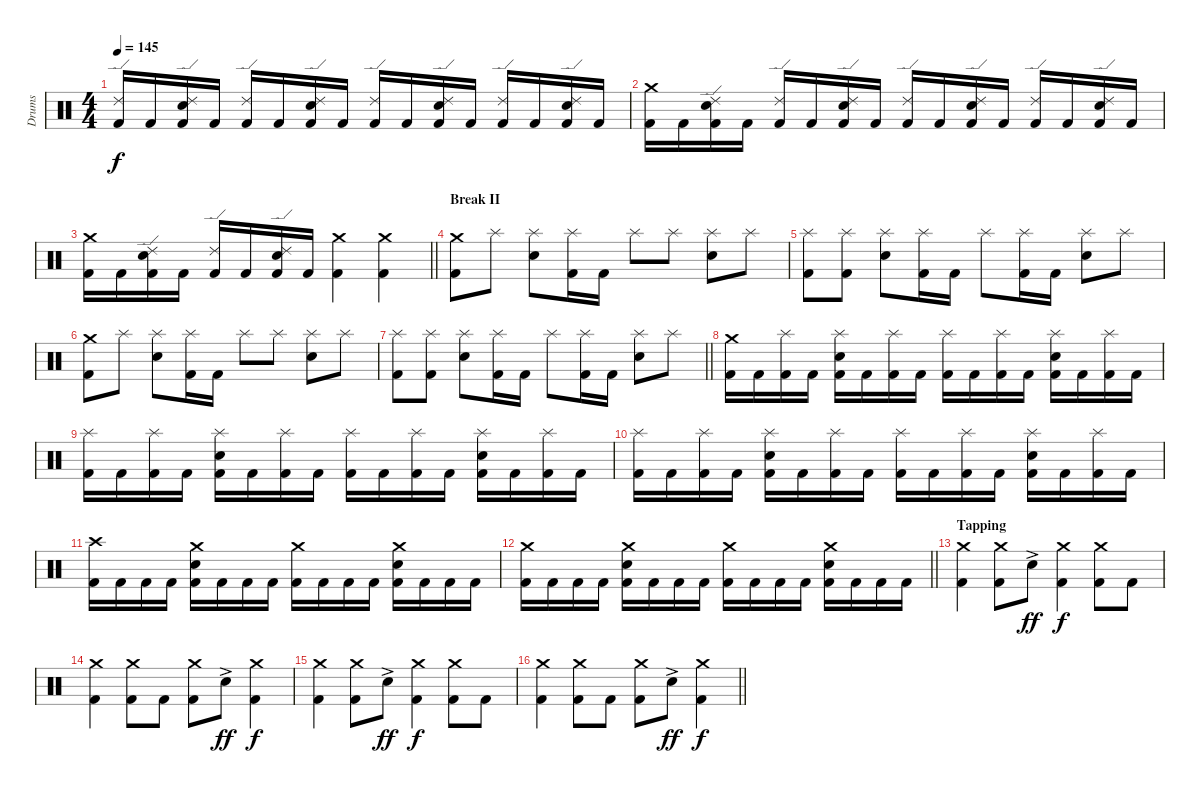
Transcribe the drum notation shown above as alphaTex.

\track ("Drums" "Drums") {instrument percussion}
\staff {score}
\articulation defaults
\ts (4 4)
\tempo 145
\clef neutral
\ks c
("Kick (hit) 2" "Ride (edge) 2").16{dy f} "Kick (hit) 2".16 ("Kick (hit) 2" "Snare (hit) 2" "Ride (edge) 2").16 "Kick (hit) 2".16 ("Kick (hit) 2" "Ride (edge) 2").16 "Kick (hit) 2".16 ("Kick (hit) 2" "Snare (hit) 2" "Ride (edge) 2").16 "Kick (hit) 2".16 ("Kick (hit) 2" "Ride (edge) 2").16 "Kick (hit) 2".16 ("Kick (hit) 2" "Snare (hit) 2" "Ride (edge) 2").16 "Kick (hit) 2".16 ("Kick (hit) 2" "Ride (edge) 2").16 "Kick (hit) 2".16 ("Kick (hit) 2" "Snare (hit) 2" "Ride (edge) 2").16 "Kick (hit) 2".16 |
("Kick (hit) 2" "Crash medium (hit)").16 "Kick (hit) 2".16 ("Kick (hit) 2" "Snare (hit) 2" "Ride (edge) 2").16 "Kick (hit) 2".16 ("Kick (hit) 2" "Ride (edge) 2").16 "Kick (hit) 2".16 ("Kick (hit) 2" "Snare (hit) 2" "Ride (edge) 2").16 "Kick (hit) 2".16 ("Kick (hit) 2" "Ride (edge) 2").16 "Kick (hit) 2".16 ("Kick (hit) 2" "Snare (hit) 2" "Ride (edge) 2").16 "Kick (hit) 2".16 ("Kick (hit) 2" "Ride (edge) 2").16 "Kick (hit) 2".16 ("Kick (hit) 2" "Snare (hit) 2" "Ride (edge) 2").16 "Kick (hit) 2".16 |
\barLineRight lightlight
("Kick (hit) 2" "Crash medium (hit)").16 "Kick (hit) 2".16 ("Kick (hit) 2" "Snare (hit) 2" "Ride (edge) 2").16 "Kick (hit) 2".16 ("Kick (hit) 2" "Ride (edge) 2").16 "Kick (hit) 2".16 ("Kick (hit) 2" "Snare (hit) 2" "Ride (edge) 2").16 "Kick (hit) 2".16 ("Kick (hit) 2" "Crash medium (hit)").4 ("Kick (hit) 2" "Crash medium (hit)").4 |
\section ("" "Break II")
("Kick (hit) 2" "Crash medium (hit)").8 "Splash (hit)".8 ("Snare (hit) 2" "Splash (hit)").8 ("Kick (hit) 2" "Splash (hit)").16 "Kick (hit) 2".16 "Splash (hit)".8 "Splash (hit)".8 ("Snare (hit) 2" "Splash (hit)").8 "Splash (hit)".8 |
("Kick (hit) 2" "Splash (hit)").8 ("Kick (hit) 2" "Splash (hit)").8 ("Snare (hit) 2" "Splash (hit)").8 ("Kick (hit) 2" "Splash (hit)").16 "Kick (hit) 2".16 "Splash (hit)".8 ("Kick (hit) 2" "Splash (hit)").16 "Kick (hit) 2".16 ("Snare (hit) 2" "Splash (hit)").8 "Splash (hit)".8 |
("Kick (hit) 2" "Crash medium (hit)").8 "Splash (hit)".8 ("Snare (hit) 2" "Splash (hit)").8 ("Kick (hit) 2" "Splash (hit)").16 "Kick (hit) 2".16 "Splash (hit)".8 "Splash (hit)".8 ("Snare (hit) 2" "Splash (hit)").8 "Splash (hit)".8 |
\barLineRight lightlight
("Kick (hit) 2" "Splash (hit)").8 ("Kick (hit) 2" "Splash (hit)").8 ("Snare (hit) 2" "Splash (hit)").8 ("Kick (hit) 2" "Splash (hit)").16 "Kick (hit) 2".16 "Splash (hit)".8 ("Kick (hit) 2" "Splash (hit)").16 "Kick (hit) 2".16 ("Snare (hit) 2" "Splash (hit)").8 "Splash (hit)".8 |
\section ("" "")
("Kick (hit) 2" "Crash medium (hit)").16 "Kick (hit) 2".16 ("Kick (hit) 2" "Splash (hit)").16 "Kick (hit) 2".16 ("Kick (hit) 2" "Snare (hit) 2" "Splash (hit)").16 "Kick (hit) 2".16 ("Kick (hit) 2" "Splash (hit)").16 "Kick (hit) 2".16 ("Kick (hit) 2" "Splash (hit)").16 "Kick (hit) 2".16 ("Kick (hit) 2" "Splash (hit)").16 "Kick (hit) 2".16 ("Kick (hit) 2" "Snare (hit) 2" "Splash (hit)").16 "Kick (hit) 2".16 ("Kick (hit) 2" "Splash (hit)").16 "Kick (hit) 2".16 |
("Kick (hit) 2" "Splash (hit)").16 "Kick (hit) 2".16 ("Kick (hit) 2" "Splash (hit)").16 "Kick (hit) 2".16 ("Kick (hit) 2" "Snare (hit) 2" "Splash (hit)").16 "Kick (hit) 2".16 ("Kick (hit) 2" "Splash (hit)").16 "Kick (hit) 2".16 ("Kick (hit) 2" "Splash (hit)").16 "Kick (hit) 2".16 ("Kick (hit) 2" "Splash (hit)").16 "Kick (hit) 2".16 ("Kick (hit) 2" "Snare (hit) 2" "Splash (hit)").16 "Kick (hit) 2".16 ("Kick (hit) 2" "Splash (hit)").16 "Kick (hit) 2".16 |
("Kick (hit) 2" "Splash (hit)").16 "Kick (hit) 2".16 ("Kick (hit) 2" "Splash (hit)").16 "Kick (hit) 2".16 ("Kick (hit) 2" "Snare (hit) 2" "Splash (hit)").16 "Kick (hit) 2".16 ("Kick (hit) 2" "Splash (hit)").16 "Kick (hit) 2".16 ("Kick (hit) 2" "Splash (hit)").16 "Kick (hit) 2".16 ("Kick (hit) 2" "Splash (hit)").16 "Kick (hit) 2".16 ("Kick (hit) 2" "Snare (hit) 2" "Splash (hit)").16 "Kick (hit) 2".16 ("Kick (hit) 2" "Splash (hit)").16 "Kick (hit) 2".16 |
("Kick (hit) 2" "Crash high (hit)").16 "Kick (hit) 2".16 "Kick (hit) 2".16 "Kick (hit) 2".16 ("Kick (hit) 2" "Snare (hit) 2" "Crash medium (hit)").16 "Kick (hit) 2".16 "Kick (hit) 2".16 "Kick (hit) 2".16 ("Kick (hit) 2" "Crash medium (hit)").16 "Kick (hit) 2".16 "Kick (hit) 2".16 "Kick (hit) 2".16 ("Kick (hit) 2" "Snare (hit) 2" "Crash medium (hit)").16 "Kick (hit) 2".16 "Kick (hit) 2".16 "Kick (hit) 2".16 |
\barLineRight lightlight
("Kick (hit) 2" "Crash medium (hit)").16 "Kick (hit) 2".16 "Kick (hit) 2".16 "Kick (hit) 2".16 ("Kick (hit) 2" "Snare (hit) 2" "Crash medium (hit)").16 "Kick (hit) 2".16 "Kick (hit) 2".16 "Kick (hit) 2".16 ("Kick (hit) 2" "Crash medium (hit)").16 "Kick (hit) 2".16 "Kick (hit) 2".16 "Kick (hit) 2".16 ("Kick (hit) 2" "Snare (hit) 2" "Crash medium (hit)").16 "Kick (hit) 2".16 "Kick (hit) 2".16 "Kick (hit) 2".16 |
\section ("" "Tapping")
("Kick (hit) 2" "Crash medium (hit)").4 ("Kick (hit) 2" "Crash medium (hit)").8 "Snare (hit) 2"{ac}.8{dy ff} ("Kick (hit) 2" "Crash medium (hit)").4{dy f} ("Kick (hit) 2" "Crash medium (hit)").8 "Kick (hit) 2".8 |
("Kick (hit) 2" "Crash medium (hit)").4 ("Kick (hit) 2" "Crash medium (hit)").8 "Kick (hit) 2".8 ("Kick (hit) 2" "Crash medium (hit)").8 "Snare (hit) 2"{ac}.8{dy ff} ("Kick (hit) 2" "Crash medium (hit)").4{dy f} |
("Kick (hit) 2" "Crash medium (hit)").4 ("Kick (hit) 2" "Crash medium (hit)").8 "Snare (hit) 2"{ac}.8{dy ff} ("Kick (hit) 2" "Crash medium (hit)").4{dy f} ("Kick (hit) 2" "Crash medium (hit)").8 "Kick (hit) 2".8 |
\barLineRight lightlight
("Kick (hit) 2" "Crash medium (hit)").4 ("Kick (hit) 2" "Crash medium (hit)").8 "Kick (hit) 2".8 ("Kick (hit) 2" "Crash medium (hit)").8 "Snare (hit) 2"{ac}.8{dy ff} ("Kick (hit) 2" "Crash medium (hit)").4{dy f}
